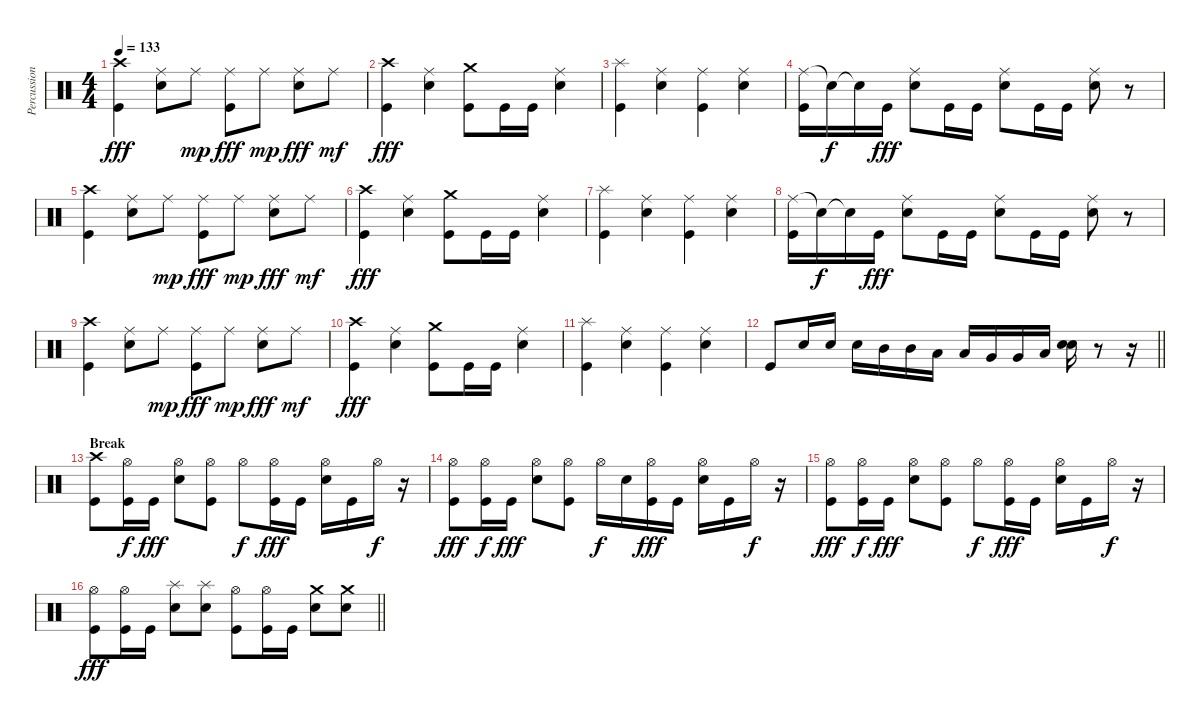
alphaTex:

\track ("Percussion/Nicko McBrain" "Percussion") {instrument percussion}
\staff {score}
\articulation defaults
\ts (4 4)
\tempo 133
\clef neutral
\ks c
("Crash high (hit)" "Kick (hit)").4{dy fff} ("Ride (middle)" "Electric Snare (hit)").8 "Ride (middle)".8{dy mp} ("Ride (middle)" "Kick (hit)").8{dy fff} "Ride (middle)".8{dy mp} ("Ride (middle)" "Electric Snare (hit)").8{dy fff} "Ride (middle)".8{dy mf} |
("Crash high (hit)" "Kick (hit)").4{dy fff} ("Ride (middle)" "Electric Snare (hit)").4 ("Crash medium (hit)" "Kick (hit)").8 "Kick (hit)".16 "Kick (hit)".16 ("Ride (middle)" "Electric Snare (hit)").4 |
("Splash (hit)" "Kick (hit)").4 ("Ride (middle)" "Electric Snare (hit)").4 ("Ride (middle)" "Kick (hit)").4 ("Ride (middle)" "Electric Snare (hit)").4 |
("Ride (middle)" "Kick (hit)").16 "Snare (hit)"{t}.16{dy f} "Snare (hit)"{t}.16 "Kick (hit)".16{dy fff} ("Ride (middle)" "Electric Snare (hit)").8 "Kick (hit)".16 "Kick (hit)".16 ("Ride (middle)" "Electric Snare (hit)").8 "Kick (hit)".16 "Kick (hit)".16 ("Ride (middle)" "Electric Snare (hit)").8 r.8 |
("Crash high (hit)" "Kick (hit)").4 ("Ride (middle)" "Electric Snare (hit)").8 "Ride (middle)".8{dy mp} ("Ride (middle)" "Kick (hit)").8{dy fff} "Ride (middle)".8{dy mp} ("Ride (middle)" "Electric Snare (hit)").8{dy fff} "Ride (middle)".8{dy mf} |
("Crash high (hit)" "Kick (hit)").4{dy fff} ("Ride (middle)" "Electric Snare (hit)").4 ("Crash medium (hit)" "Kick (hit)").8 "Kick (hit)".16 "Kick (hit)".16 ("Ride (middle)" "Electric Snare (hit)").4 |
("Splash (hit)" "Kick (hit)").4 ("Ride (middle)" "Electric Snare (hit)").4 ("Ride (middle)" "Kick (hit)").4 ("Ride (middle)" "Electric Snare (hit)").4 |
("Ride (middle)" "Kick (hit)").16 "Snare (hit)"{t}.16{dy f} "Snare (hit)"{t}.16 "Kick (hit)".16{dy fff} ("Ride (middle)" "Electric Snare (hit)").8 "Kick (hit)".16 "Kick (hit)".16 ("Ride (middle)" "Electric Snare (hit)").8 "Kick (hit)".16 "Kick (hit)".16 ("Ride (middle)" "Electric Snare (hit)").8 r.8 |
("Crash high (hit)" "Kick (hit)").4 ("Ride (middle)" "Electric Snare (hit)").8 "Ride (middle)".8{dy mp} ("Ride (middle)" "Kick (hit)").8{dy fff} "Ride (middle)".8{dy mp} ("Ride (middle)" "Electric Snare (hit)").8{dy fff} "Ride (middle)".8{dy mf} |
("Crash high (hit)" "Kick (hit)").4{dy fff} ("Ride (middle)" "Electric Snare (hit)").4 ("Crash medium (hit)" "Kick (hit)").8 "Kick (hit)".16 "Kick (hit)".16 ("Ride (middle)" "Electric Snare (hit)").4 |
("Splash (hit)" "Kick (hit)").4 ("Ride (middle)" "Electric Snare (hit)").4 ("Ride (middle)" "Kick (hit)").4 ("Ride (middle)" "Electric Snare (hit)").4 |
\barLineRight lightlight "Kick (hit)".8 "Electric Snare (hit)".16 "Electric Snare (hit)".16 "Electric Snare (hit)".16 "Mid Tom (hit)".16 "Mid Tom (hit)".16 "Low Tom (hit)".16 "Low Tom (hit)".16 "Very Low Tom (hit)".16 "Very Low Tom (hit)".16 "Low Floor Tom (hit)".16
("Snare (hit) 2" "Electric Snare (hit)").16 r.8 r.16 |
\section ("" "Break")
("Crash high (hit)" "Kick (hit)").8 ("Hi-Hat (open)" "Kick (hit)").16{dy f} "Kick (hit)".16{dy fff} ("Hi-Hat (open)" "Electric Snare (hit)").8 ("Hi-Hat (open)" "Kick (hit)").8 "Hi-Hat (open)".8{dy f} ("Hi-Hat (open)" "Kick (hit)").16{dy fff} "Kick (hit)".16 ("Hi-Hat (open)" "Electric Snare (hit)").16 "Kick (hit)".16 "Hi-Hat (open)".16{dy f} r.16 |
("Hi-Hat (open)" "Kick (hit)").8{dy fff} ("Hi-Hat (open)" "Kick (hit)").16{dy f} "Kick (hit)".16{dy fff} ("Hi-Hat (open)" "Electric Snare (hit)").8 ("Hi-Hat (open)" "Kick (hit)").8 "Hi-Hat (open)".16{dy f} "Electric Snare (hit)".16 ("Hi-Hat (open)" "Kick (hit)").16{dy fff} "Kick (hit)".16 ("Hi-Hat (open)" "Electric Snare (hit)").16 "Kick (hit)".16 "Hi-Hat (open)".16{dy f} r.16 |
("Hi-Hat (open)" "Kick (hit)").8{dy fff} ("Hi-Hat (open)" "Kick (hit)").16{dy f} "Kick (hit)".16{dy fff} ("Hi-Hat (open)" "Electric Snare (hit)").8 ("Hi-Hat (open)" "Kick (hit)").8 "Hi-Hat (open)".8{dy f} ("Hi-Hat (open)" "Kick (hit)").16{dy fff} "Kick (hit)".16 ("Hi-Hat (open)" "Electric Snare (hit)").16 "Kick (hit)".16 "Hi-Hat (open)".16{dy f} r.16 |
\barLineRight lightlight
("Hi-Hat (open)" "Kick (hit)").8{dy fff} ("Hi-Hat (open)" "Kick (hit)").16 "Kick (hit)".16 ("Splash (hit)" "Electric Snare (hit)").8 ("Splash (hit)" "Electric Snare (hit)").8 ("Hi-Hat (open)" "Kick (hit)").8 ("Hi-Hat (open)" "Kick (hit)").16 "Kick (hit)".16 ("Crash medium (hit)" "Electric Snare (hit)").8 ("Crash medium (hit)" "Electric Snare (hit)").8
